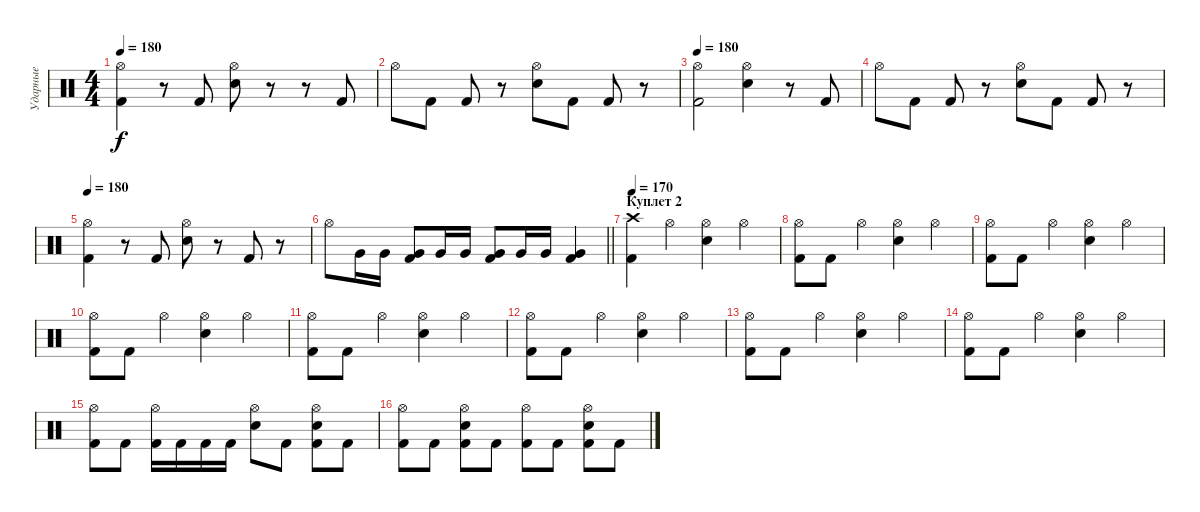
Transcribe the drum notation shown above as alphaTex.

\track ("Ударные" "Ударные") {instrument percussion}
\staff {score}
\articulation defaults
\ts (4 4)
\tempo 180
\clef neutral
\ks c
("Hi-Hat (open)" "Kick (hit) 2").4{dy f} r.8 "Kick (hit) 2".8 ("Hi-Hat (open)" "Electric Snare (hit)").8 r.8 r.8 "Kick (hit) 2".8 |
"Hi-Hat (open)".8 "Kick (hit) 2".8 "Kick (hit) 2".8 r.8 ("Hi-Hat (open)" "Electric Snare (hit)").8 "Kick (hit) 2".8 "Kick (hit) 2".8 r.8 |
\tempo 180
("Hi-Hat (open)" "Kick (hit) 2").2 ("Hi-Hat (open)" "Electric Snare (hit)").4 r.8 "Kick (hit) 2".8 |
"Hi-Hat (open)".8 "Kick (hit) 2".8 "Kick (hit) 2".8 r.8 ("Hi-Hat (open)" "Electric Snare (hit)").8 "Kick (hit) 2".8 "Kick (hit) 2".8 r.8 |
\tempo 180
("Hi-Hat (open)" "Kick (hit) 2").4 r.8 "Kick (hit) 2".8 ("Hi-Hat (open)" "Electric Snare (hit)").8 r.8 "Kick (hit) 2".8 r.8 |
\barLineRight lightlight "Hi-Hat (open)".8 "Very Low Tom (hit)".16 "Very Low Tom (hit)".16
("Very Low Tom (hit)" "Kick (hit) 2").8 "Very Low Tom (hit)".16 "Very Low Tom (hit)".16 ("Very Low Tom (hit)" "Kick (hit) 2").8 "Very Low Tom (hit)".16 "Very Low Tom (hit)".16 ("Very Low Tom (hit)" "Kick (hit) 2").4 |
\section ("" "Куплет 2")
\tempo 170
("Crash high (hit)" "Kick (hit) 2").4 "Hi-Hat (open)".4 ("Hi-Hat (open)" "Electric Snare (hit)").4 "Hi-Hat (open)".4 |
("Hi-Hat (open)" "Kick (hit) 2").8 "Kick (hit) 2".8 "Hi-Hat (open)".4 ("Hi-Hat (open)" "Electric Snare (hit)").4 "Hi-Hat (open)".4 |
("Hi-Hat (open)" "Kick (hit) 2").8 "Kick (hit) 2".8 "Hi-Hat (open)".4 ("Hi-Hat (open)" "Electric Snare (hit)").4 "Hi-Hat (open)".4 |
("Hi-Hat (open)" "Kick (hit) 2").8 "Kick (hit) 2".8 "Hi-Hat (open)".4 ("Hi-Hat (open)" "Electric Snare (hit)").4 "Hi-Hat (open)".4 |
("Hi-Hat (open)" "Kick (hit) 2").8 "Kick (hit) 2".8 "Hi-Hat (open)".4 ("Hi-Hat (open)" "Electric Snare (hit)").4 "Hi-Hat (open)".4 |
("Hi-Hat (open)" "Kick (hit) 2").8 "Kick (hit) 2".8 "Hi-Hat (open)".4 ("Hi-Hat (open)" "Electric Snare (hit)").4 "Hi-Hat (open)".4 |
("Hi-Hat (open)" "Kick (hit) 2").8 "Kick (hit) 2".8 "Hi-Hat (open)".4 ("Hi-Hat (open)" "Electric Snare (hit)").4 "Hi-Hat (open)".4 |
("Hi-Hat (open)" "Kick (hit) 2").8 "Kick (hit) 2".8 "Hi-Hat (open)".4 ("Hi-Hat (open)" "Electric Snare (hit)").4 "Hi-Hat (open)".4 |
("Hi-Hat (open)" "Kick (hit) 2").8 "Kick (hit) 2".8 ("Hi-Hat (open)" "Kick (hit) 2").16 "Kick (hit) 2".16 "Kick (hit) 2".16 "Kick (hit) 2".16 ("Hi-Hat (open)" "Electric Snare (hit)").8 "Kick (hit) 2".8 ("Hi-Hat (open)" "Electric Snare (hit)" "Kick (hit) 2").8 "Kick (hit) 2".8 |
("Hi-Hat (open)" "Kick (hit) 2").8 "Kick (hit) 2".8 ("Hi-Hat (open)" "Electric Snare (hit)" "Kick (hit) 2").8 "Kick (hit) 2".8 ("Hi-Hat (open)" "Kick (hit) 2").8 "Kick (hit) 2".8 ("Hi-Hat (open)" "Electric Snare (hit)" "Kick (hit) 2").8 "Kick (hit) 2".8
